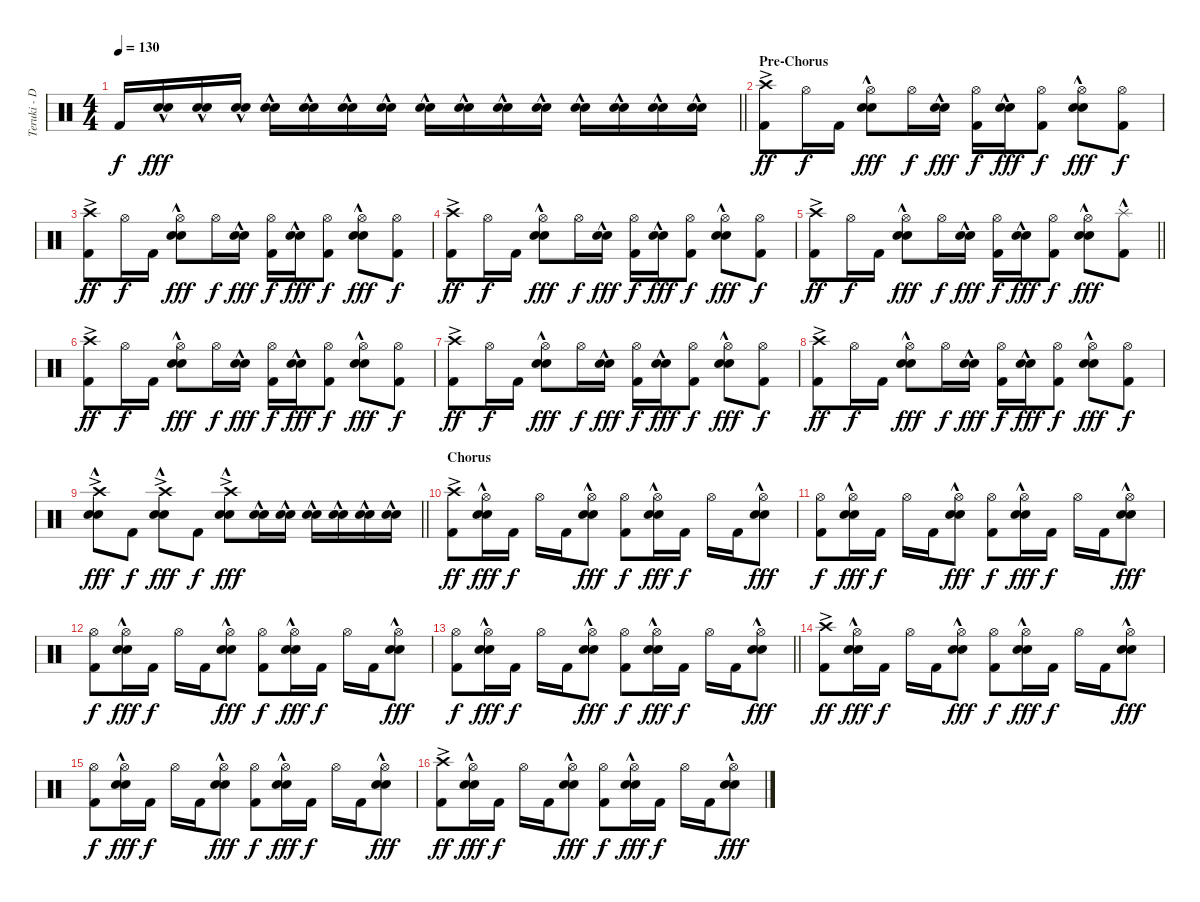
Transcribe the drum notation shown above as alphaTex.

\track ("Teruki - Drums" "Teruki - D") {instrument percussion}
\staff {score}
\articulation defaults
\ts (4 4)
\tempo 130
\clef neutral
\barLineRight lightlight
\ks c "Kick (hit) 2".16{dy f}
("Electric Snare (hit)"{hac} "Snare (hit) 2").16{dy fff} ("Electric Snare (hit)"{hac} "Snare (hit) 2").16 ("Electric Snare (hit)"{hac} "Snare (hit) 2").16 ("Electric Snare (hit)"{hac} "Snare (hit) 2").16 ("Electric Snare (hit)"{hac} "Snare (hit) 2").16 ("Electric Snare (hit)"{hac} "Snare (hit) 2").16 ("Electric Snare (hit)"{hac} "Snare (hit) 2").16 ("Electric Snare (hit)"{hac} "Snare (hit) 2").16 ("Electric Snare (hit)"{hac} "Snare (hit) 2").16 ("Electric Snare (hit)"{hac} "Snare (hit) 2").16 ("Electric Snare (hit)"{hac} "Snare (hit) 2").16 ("Electric Snare (hit)"{hac} "Snare (hit) 2").16 ("Electric Snare (hit)"{hac} "Snare (hit) 2").16 ("Electric Snare (hit)"{hac} "Snare (hit) 2").16 ("Electric Snare (hit)"{hac} "Snare (hit) 2").16 |
\section ("" "Pre-Chorus")
("Crash high (hit)"{ac} "Kick (hit) 2").8{dy ff} "Hi-Hat (open)".16{dy f} "Kick (hit) 2".16 ("Hi-Hat (open)" "Electric Snare (hit)"{hac} "Snare (hit) 2").8{dy fff} "Hi-Hat (open)".16{dy f} ("Electric Snare (hit)"{hac} "Snare (hit) 2").16{dy fff} ("Hi-Hat (open)" "Kick (hit) 2").16{dy f} ("Electric Snare (hit)"{hac} "Snare (hit) 2").16{dy fff} ("Hi-Hat (open)" "Kick (hit) 2").8{dy f} ("Hi-Hat (open)" "Electric Snare (hit)"{hac} "Snare (hit) 2").8{dy fff} ("Hi-Hat (open)" "Kick (hit) 2").8{dy f} |
("Crash high (hit)"{ac} "Kick (hit) 2").8{dy ff} "Hi-Hat (open)".16{dy f} "Kick (hit) 2".16 ("Hi-Hat (open)" "Electric Snare (hit)"{hac} "Snare (hit) 2").8{dy fff} "Hi-Hat (open)".16{dy f} ("Electric Snare (hit)"{hac} "Snare (hit) 2").16{dy fff} ("Hi-Hat (open)" "Kick (hit) 2").16{dy f} ("Electric Snare (hit)"{hac} "Snare (hit) 2").16{dy fff} ("Hi-Hat (open)" "Kick (hit) 2").8{dy f} ("Hi-Hat (open)" "Electric Snare (hit)"{hac} "Snare (hit) 2").8{dy fff} ("Hi-Hat (open)" "Kick (hit) 2").8{dy f} |
("Crash high (hit)"{ac} "Kick (hit) 2").8{dy ff} "Hi-Hat (open)".16{dy f} "Kick (hit) 2".16 ("Hi-Hat (open)" "Electric Snare (hit)"{hac} "Snare (hit) 2").8{dy fff} "Hi-Hat (open)".16{dy f} ("Electric Snare (hit)"{hac} "Snare (hit) 2").16{dy fff} ("Hi-Hat (open)" "Kick (hit) 2").16{dy f} ("Electric Snare (hit)"{hac} "Snare (hit) 2").16{dy fff} ("Hi-Hat (open)" "Kick (hit) 2").8{dy f} ("Hi-Hat (open)" "Electric Snare (hit)"{hac} "Snare (hit) 2").8{dy fff} ("Hi-Hat (open)" "Kick (hit) 2").8{dy f} |
\barLineRight lightlight
("Crash high (hit)"{ac} "Kick (hit) 2").8{dy ff} "Hi-Hat (open)".16{dy f} "Kick (hit) 2".16 ("Hi-Hat (open)" "Electric Snare (hit)"{hac} "Snare (hit) 2").8{dy fff} "Hi-Hat (open)".16{dy f} ("Electric Snare (hit)"{hac} "Snare (hit) 2").16{dy fff} ("Hi-Hat (open)" "Kick (hit) 2").16{dy f} ("Electric Snare (hit)"{hac} "Snare (hit) 2").16{dy fff} ("Hi-Hat (open)" "Kick (hit) 2").8{dy f} ("Hi-Hat (open)" "Electric Snare (hit)"{hac} "Snare (hit) 2").8{dy fff} ("Splash (hit)"{hac} "Kick (hit) 2").8 |
("Crash high (hit)"{ac} "Kick (hit) 2").8{dy ff} "Hi-Hat (open)".16{dy f} "Kick (hit) 2".16 ("Hi-Hat (open)" "Electric Snare (hit)"{hac} "Snare (hit) 2").8{dy fff} "Hi-Hat (open)".16{dy f} ("Electric Snare (hit)"{hac} "Snare (hit) 2").16{dy fff} ("Hi-Hat (open)" "Kick (hit) 2").16{dy f} ("Electric Snare (hit)"{hac} "Snare (hit) 2").16{dy fff} ("Hi-Hat (open)" "Kick (hit) 2").8{dy f} ("Hi-Hat (open)" "Electric Snare (hit)"{hac} "Snare (hit) 2").8{dy fff} ("Hi-Hat (open)" "Kick (hit) 2").8{dy f} |
("Crash high (hit)"{ac} "Kick (hit) 2").8{dy ff} "Hi-Hat (open)".16{dy f} "Kick (hit) 2".16 ("Hi-Hat (open)" "Electric Snare (hit)"{hac} "Snare (hit) 2").8{dy fff} "Hi-Hat (open)".16{dy f} ("Electric Snare (hit)"{hac} "Snare (hit) 2").16{dy fff} ("Hi-Hat (open)" "Kick (hit) 2").16{dy f} ("Electric Snare (hit)"{hac} "Snare (hit) 2").16{dy fff} ("Hi-Hat (open)" "Kick (hit) 2").8{dy f} ("Hi-Hat (open)" "Electric Snare (hit)"{hac} "Snare (hit) 2").8{dy fff} ("Hi-Hat (open)" "Kick (hit) 2").8{dy f} |
("Crash high (hit)"{ac} "Kick (hit) 2").8{dy ff} "Hi-Hat (open)".16{dy f} "Kick (hit) 2".16 ("Hi-Hat (open)" "Electric Snare (hit)"{hac} "Snare (hit) 2").8{dy fff} "Hi-Hat (open)".16{dy f} ("Electric Snare (hit)"{hac} "Snare (hit) 2").16{dy fff} ("Hi-Hat (open)" "Kick (hit) 2").16{dy f} ("Electric Snare (hit)"{hac} "Snare (hit) 2").16{dy fff} ("Hi-Hat (open)" "Kick (hit) 2").8{dy f} ("Hi-Hat (open)" "Electric Snare (hit)"{hac} "Snare (hit) 2").8{dy fff} ("Hi-Hat (open)" "Kick (hit) 2").8{dy f} |
\barLineRight lightlight
("Crash high (hit)"{ac} "Electric Snare (hit)"{hac} "Snare (hit) 2").8{dy fff} "Kick (hit) 2".8{dy f} ("Crash high (hit)"{ac} "Electric Snare (hit)"{hac} "Snare (hit) 2").8{dy fff} "Kick (hit) 2".8{dy f} ("Crash high (hit)"{ac} "Electric Snare (hit)"{hac} "Snare (hit) 2").8{dy fff} ("Electric Snare (hit)"{hac} "Snare (hit) 2").16 ("Electric Snare (hit)"{hac} "Snare (hit) 2").16 ("Electric Snare (hit)"{hac} "Snare (hit) 2").16 ("Electric Snare (hit)"{hac} "Snare (hit) 2").16 ("Electric Snare (hit)"{hac} "Snare (hit) 2").16 ("Electric Snare (hit)"{hac} "Snare (hit) 2").16 |
\section ("" "Chorus")
("Crash high (hit)"{ac} "Kick (hit) 2").8{dy ff} ("Hi-Hat (open)" "Electric Snare (hit)"{hac} "Snare (hit) 2").16{dy fff} "Kick (hit) 2".16{dy f} "Hi-Hat (open)".16 "Kick (hit) 2".16 ("Hi-Hat (open)" "Electric Snare (hit)"{hac} "Snare (hit) 2").8{dy fff} ("Hi-Hat (open)" "Kick (hit) 2").8{dy f} ("Hi-Hat (open)" "Electric Snare (hit)"{hac} "Snare (hit) 2").16{dy fff} "Kick (hit) 2".16{dy f} "Hi-Hat (open)".16 "Kick (hit) 2".16 ("Hi-Hat (open)" "Electric Snare (hit)"{hac} "Snare (hit) 2").8{dy fff} |
("Hi-Hat (open)" "Kick (hit) 2").8{dy f} ("Hi-Hat (open)" "Electric Snare (hit)"{hac} "Snare (hit) 2").16{dy fff} "Kick (hit) 2".16{dy f} "Hi-Hat (open)".16 "Kick (hit) 2".16 ("Hi-Hat (open)" "Electric Snare (hit)"{hac} "Snare (hit) 2").8{dy fff} ("Hi-Hat (open)" "Kick (hit) 2").8{dy f} ("Hi-Hat (open)" "Electric Snare (hit)"{hac} "Snare (hit) 2").16{dy fff} "Kick (hit) 2".16{dy f} "Hi-Hat (open)".16 "Kick (hit) 2".16 ("Hi-Hat (open)" "Electric Snare (hit)"{hac} "Snare (hit) 2").8{dy fff} |
("Hi-Hat (open)" "Kick (hit) 2").8{dy f} ("Hi-Hat (open)" "Electric Snare (hit)"{hac} "Snare (hit) 2").16{dy fff} "Kick (hit) 2".16{dy f} "Hi-Hat (open)".16 "Kick (hit) 2".16 ("Hi-Hat (open)" "Electric Snare (hit)"{hac} "Snare (hit) 2").8{dy fff} ("Hi-Hat (open)" "Kick (hit) 2").8{dy f} ("Hi-Hat (open)" "Electric Snare (hit)"{hac} "Snare (hit) 2").16{dy fff} "Kick (hit) 2".16{dy f} "Hi-Hat (open)".16 "Kick (hit) 2".16 ("Hi-Hat (open)" "Electric Snare (hit)"{hac} "Snare (hit) 2").8{dy fff} |
\barLineRight lightlight
("Hi-Hat (open)" "Kick (hit) 2").8{dy f} ("Hi-Hat (open)" "Electric Snare (hit)"{hac} "Snare (hit) 2").16{dy fff} "Kick (hit) 2".16{dy f} "Hi-Hat (open)".16 "Kick (hit) 2".16 ("Hi-Hat (open)" "Electric Snare (hit)"{hac} "Snare (hit) 2").8{dy fff} ("Hi-Hat (open)" "Kick (hit) 2").8{dy f} ("Hi-Hat (open)" "Electric Snare (hit)"{hac} "Snare (hit) 2").16{dy fff} "Kick (hit) 2".16{dy f} "Hi-Hat (open)".16 "Kick (hit) 2".16 ("Hi-Hat (open)" "Electric Snare (hit)"{hac} "Snare (hit) 2").8{dy fff} |
("Crash high (hit)"{ac} "Kick (hit) 2").8{dy ff} ("Hi-Hat (open)" "Electric Snare (hit)"{hac} "Snare (hit) 2").16{dy fff} "Kick (hit) 2".16{dy f} "Hi-Hat (open)".16 "Kick (hit) 2".16 ("Hi-Hat (open)" "Electric Snare (hit)"{hac} "Snare (hit) 2").8{dy fff} ("Hi-Hat (open)" "Kick (hit) 2").8{dy f} ("Hi-Hat (open)" "Electric Snare (hit)"{hac} "Snare (hit) 2").16{dy fff} "Kick (hit) 2".16{dy f} "Hi-Hat (open)".16 "Kick (hit) 2".16 ("Hi-Hat (open)" "Electric Snare (hit)"{hac} "Snare (hit) 2").8{dy fff} |
("Hi-Hat (open)" "Kick (hit) 2").8{dy f} ("Hi-Hat (open)" "Electric Snare (hit)"{hac} "Snare (hit) 2").16{dy fff} "Kick (hit) 2".16{dy f} "Hi-Hat (open)".16 "Kick (hit) 2".16 ("Hi-Hat (open)" "Electric Snare (hit)"{hac} "Snare (hit) 2").8{dy fff} ("Hi-Hat (open)" "Kick (hit) 2").8{dy f} ("Hi-Hat (open)" "Electric Snare (hit)"{hac} "Snare (hit) 2").16{dy fff} "Kick (hit) 2".16{dy f} "Hi-Hat (open)".16 "Kick (hit) 2".16 ("Hi-Hat (open)" "Electric Snare (hit)"{hac} "Snare (hit) 2").8{dy fff} |
("Crash high (hit)"{ac} "Kick (hit) 2").8{dy ff} ("Hi-Hat (open)" "Electric Snare (hit)"{hac} "Snare (hit) 2").16{dy fff} "Kick (hit) 2".16{dy f} "Hi-Hat (open)".16 "Kick (hit) 2".16 ("Hi-Hat (open)" "Electric Snare (hit)"{hac} "Snare (hit) 2").8{dy fff} ("Hi-Hat (open)" "Kick (hit) 2").8{dy f} ("Hi-Hat (open)" "Electric Snare (hit)"{hac} "Snare (hit) 2").16{dy fff} "Kick (hit) 2".16{dy f} "Hi-Hat (open)".16 "Kick (hit) 2".16 ("Hi-Hat (open)" "Electric Snare (hit)"{hac} "Snare (hit) 2").8{dy fff}
